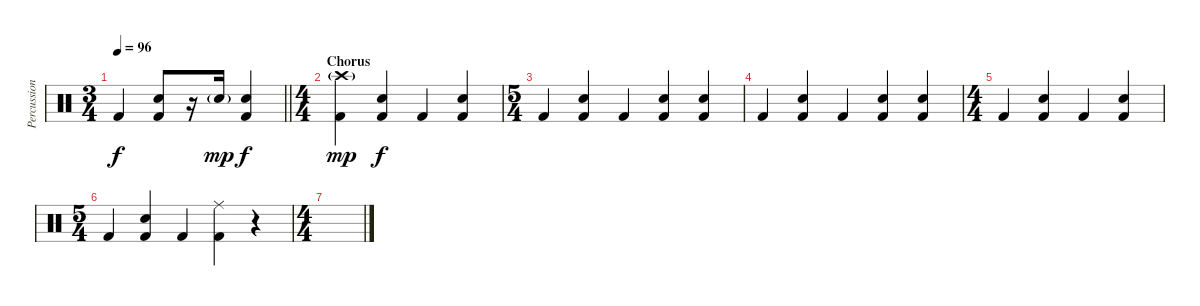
\track ("Percussion" "Percussion") {instrument percussion}
\staff {score}
\articulation defaults
\ts (3 4)
\tempo 96
\clef neutral
\barLineRight lightlight
\ks c "Kick (hit) 2".4{dy f}
("Snare (hit) 2" "Kick (hit) 2").8 r.16 "Snare (hit) 2"{g}.16{dy mp} ("Snare (hit) 2" "Kick (hit) 2").4{dy f} |
\ts (4 4)
\section ("" "Chorus")
("Crash high (hit)"{g} "Kick (hit) 2").4{dy mp} ("Snare (hit) 2" "Kick (hit) 2").4{dy f} "Kick (hit) 2".4 ("Snare (hit) 2" "Kick (hit) 2").4 |
\ts (5 4)
"Kick (hit) 2".4 ("Snare (hit) 2" "Kick (hit) 2").4 "Kick (hit) 2".4 ("Snare (hit) 2" "Kick (hit) 2").4 ("Snare (hit) 2" "Kick (hit) 2").4 |
"Kick (hit) 2".4 ("Snare (hit) 2" "Kick (hit) 2").4 "Kick (hit) 2".4 ("Snare (hit) 2" "Kick (hit) 2").4 ("Snare (hit) 2" "Kick (hit) 2").4 |
\ts (4 4)
"Kick (hit) 2".4 ("Snare (hit) 2" "Kick (hit) 2").4 "Kick (hit) 2".4 ("Snare (hit) 2" "Kick (hit) 2").4 |
\ts (5 4)
"Kick (hit) 2".4 ("Snare (hit) 2" "Kick (hit) 2").4 "Kick (hit) 2".4 ("Ride (middle)" "Kick (hit) 2").4 r.4 |
\ts (4 4)
